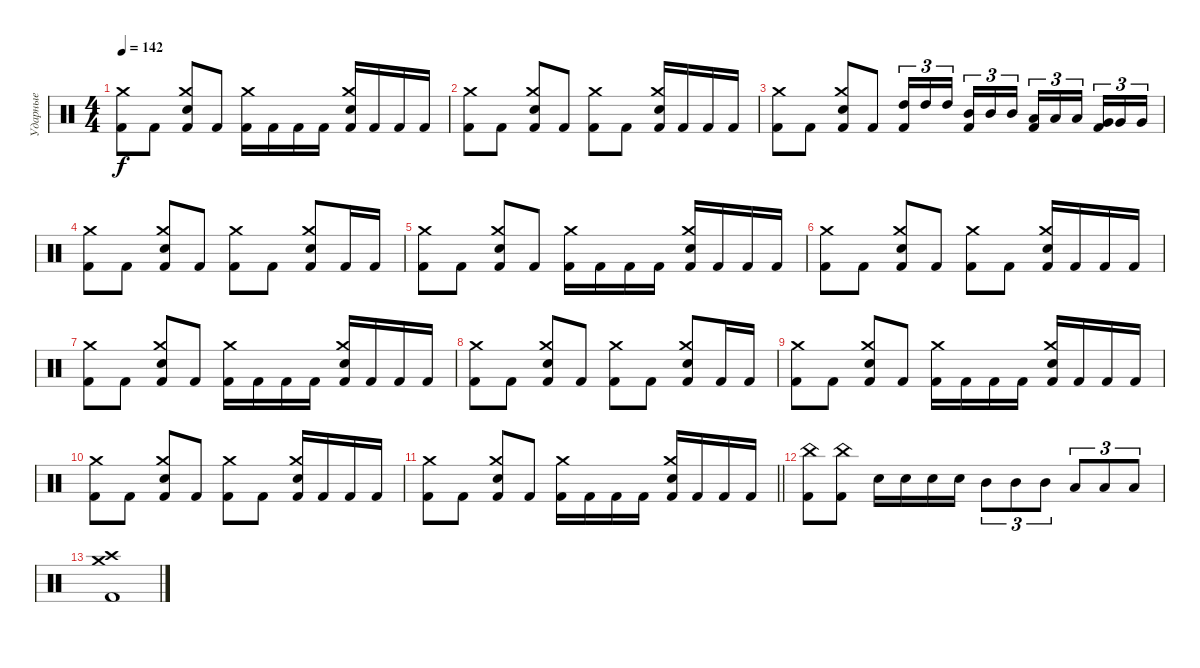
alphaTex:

\track ("Ударные" "Ударные") {instrument percussion}
\staff {score}
\articulation defaults
\ts (4 4)
\tempo 142
\clef neutral
\ks c
("Kick (hit) 2" "Crash medium (hit)").8{dy f} "Kick (hit) 2".8 ("Kick (hit) 2" "Snare (hit) 2" "Crash medium (hit)").8 "Kick (hit) 2".8 ("Kick (hit) 2" "Crash medium (hit)").16 "Kick (hit) 2".16 "Kick (hit) 2".16 "Kick (hit) 2".16 ("Kick (hit) 2" "Snare (hit) 2" "Crash medium (hit)").16 "Kick (hit) 2".16 "Kick (hit) 2".16 "Kick (hit) 2".16 |
("Kick (hit) 2" "Crash medium (hit)").8 "Kick (hit) 2".8 ("Kick (hit) 2" "Snare (hit) 2" "Crash medium (hit)").8 "Kick (hit) 2".8 ("Kick (hit) 2" "Crash medium (hit)").8 "Kick (hit) 2".8 ("Kick (hit) 2" "Snare (hit) 2" "Crash medium (hit)").16 "Kick (hit) 2".16 "Kick (hit) 2".16 "Kick (hit) 2".16 |
("Kick (hit) 2" "Crash medium (hit)").8 "Kick (hit) 2".8 ("Kick (hit) 2" "Snare (hit) 2" "Crash medium (hit)").8 "Kick (hit) 2".8 ("Kick (hit) 2" "High Tom (hit)").16{tu (3 2)} "High Tom (hit)".16{tu (3 2)} "High Tom (hit)".16{tu (3 2) beam splitsecondary} ("Kick (hit) 2" "Mid Tom (hit)").16{tu (3 2)} "Mid Tom (hit)".16{tu (3 2)} "Mid Tom (hit)".16{tu (3 2)} ("Kick (hit) 2" "Low Tom (hit)").16{tu (3 2)} "Low Tom (hit)".16{tu (3 2)} "Low Tom (hit)".16{tu (3 2) beam splitsecondary} ("Kick (hit) 2" "Very Low Tom (hit)").16{tu (3 2)} "Very Low Tom (hit)".16{tu (3 2)} "Very Low Tom (hit)".16{tu (3 2)} |
("Kick (hit) 2" "Crash medium (hit)").8 "Kick (hit) 2".8 ("Kick (hit) 2" "Snare (hit) 2" "Crash medium (hit)").8 "Kick (hit) 2".8 ("Kick (hit) 2" "Crash medium (hit)").8 "Kick (hit) 2".8 ("Kick (hit) 2" "Snare (hit) 2" "Crash medium (hit)").8 "Kick (hit) 2".16 "Kick (hit) 2".16 |
("Kick (hit) 2" "Crash medium (hit)").8 "Kick (hit) 2".8 ("Kick (hit) 2" "Snare (hit) 2" "Crash medium (hit)").8 "Kick (hit) 2".8 ("Kick (hit) 2" "Crash medium (hit)").16 "Kick (hit) 2".16 "Kick (hit) 2".16 "Kick (hit) 2".16 ("Kick (hit) 2" "Snare (hit) 2" "Crash medium (hit)").16 "Kick (hit) 2".16 "Kick (hit) 2".16 "Kick (hit) 2".16 |
("Kick (hit) 2" "Crash medium (hit)").8 "Kick (hit) 2".8 ("Kick (hit) 2" "Snare (hit) 2" "Crash medium (hit)").8 "Kick (hit) 2".8 ("Kick (hit) 2" "Crash medium (hit)").8 "Kick (hit) 2".8 ("Kick (hit) 2" "Snare (hit) 2" "Crash medium (hit)").16 "Kick (hit) 2".16 "Kick (hit) 2".16 "Kick (hit) 2".16 |
("Kick (hit) 2" "Crash medium (hit)").8 "Kick (hit) 2".8 ("Kick (hit) 2" "Snare (hit) 2" "Crash medium (hit)").8 "Kick (hit) 2".8 ("Kick (hit) 2" "Crash medium (hit)").16 "Kick (hit) 2".16 "Kick (hit) 2".16 "Kick (hit) 2".16 ("Kick (hit) 2" "Snare (hit) 2" "Crash medium (hit)").16 "Kick (hit) 2".16 "Kick (hit) 2".16 "Kick (hit) 2".16 |
("Kick (hit) 2" "Crash medium (hit)").8 "Kick (hit) 2".8 ("Kick (hit) 2" "Snare (hit) 2" "Crash medium (hit)").8 "Kick (hit) 2".8 ("Kick (hit) 2" "Crash medium (hit)").8 "Kick (hit) 2".8 ("Kick (hit) 2" "Snare (hit) 2" "Crash medium (hit)").8 "Kick (hit) 2".16 "Kick (hit) 2".16 |
("Kick (hit) 2" "Crash medium (hit)").8 "Kick (hit) 2".8 ("Kick (hit) 2" "Snare (hit) 2" "Crash medium (hit)").8 "Kick (hit) 2".8 ("Kick (hit) 2" "Crash medium (hit)").16 "Kick (hit) 2".16 "Kick (hit) 2".16 "Kick (hit) 2".16 ("Kick (hit) 2" "Snare (hit) 2" "Crash medium (hit)").16 "Kick (hit) 2".16 "Kick (hit) 2".16 "Kick (hit) 2".16 |
("Kick (hit) 2" "Crash medium (hit)").8 "Kick (hit) 2".8 ("Kick (hit) 2" "Snare (hit) 2" "Crash medium (hit)").8 "Kick (hit) 2".8 ("Kick (hit) 2" "Crash medium (hit)").8 "Kick (hit) 2".8 ("Kick (hit) 2" "Snare (hit) 2" "Crash medium (hit)").16 "Kick (hit) 2".16 "Kick (hit) 2".16 "Kick (hit) 2".16 |
\barLineRight lightlight
("Kick (hit) 2" "Crash medium (hit)").8 "Kick (hit) 2".8 ("Kick (hit) 2" "Snare (hit) 2" "Crash medium (hit)").8 "Kick (hit) 2".8 ("Kick (hit) 2" "Crash medium (hit)").16 "Kick (hit) 2".16 "Kick (hit) 2".16 "Kick (hit) 2".16 ("Kick (hit) 2" "Snare (hit) 2" "Crash medium (hit)").16 "Kick (hit) 2".16 "Kick (hit) 2".16 "Kick (hit) 2".16 |
("Kick (hit) 2" "China (hit)").8 ("Kick (hit) 2" "China (hit)").8 "Snare (hit) 2".16 "Snare (hit) 2".16 "Snare (hit) 2".16 "Snare (hit) 2".16 "Mid Tom (hit)".8{tu (3 2)} "Mid Tom (hit)".8{tu (3 2)} "Mid Tom (hit)".8{tu (3 2)} "Low Tom (hit)".8{tu (3 2)} "Low Tom (hit)".8{tu (3 2)} "Low Tom (hit)".8{tu (3 2)} |
("Kick (hit) 2" "Crash high (hit)" "Crash medium (hit)").1
